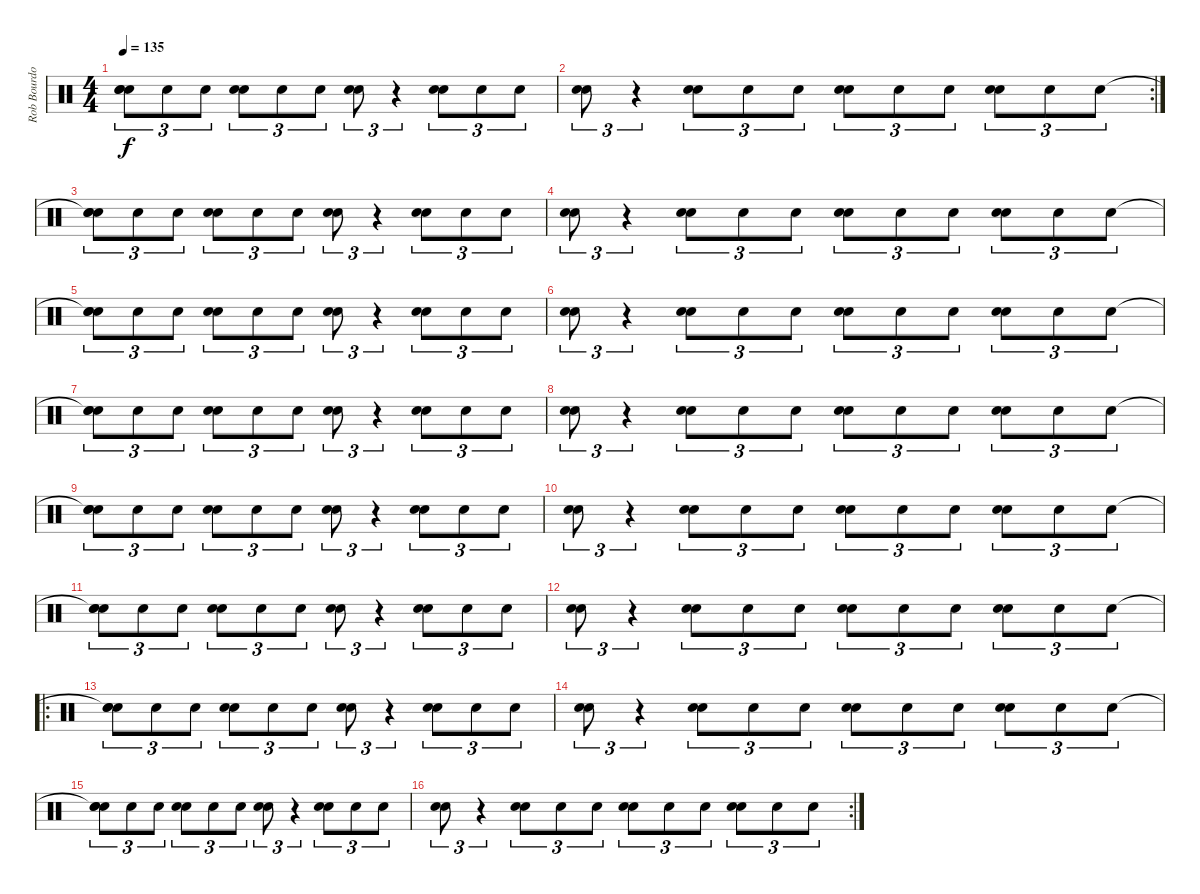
\track ("Rob Bourdon [Drums]" "Rob Bourdo") {instrument percussion bank 5}
\staff {score}
\articulation defaults
\ts (4 4)
\tempo 135
\clef neutral
\ks c
("Snare (hit)"{t} "Hand Clap (hit)" "Electric Snare (hit)").8{tu (3 2) dy f} "Electric Snare (hit)".8{tu (3 2)} "Electric Snare (hit)".8{tu (3 2)} ("Hand Clap (hit)" "Electric Snare (hit)").8{tu (3 2)} "Electric Snare (hit)".8{tu (3 2)} "Electric Snare (hit)".8{tu (3 2)} ("Hand Clap (hit)" "Electric Snare (hit)").8{tu (3 2)} r.4{tu (3 2)} ("Hand Clap (hit)" "Electric Snare (hit)").8{tu (3 2)} "Electric Snare (hit)".8{tu (3 2)} "Electric Snare (hit)".8{tu (3 2)} |
\rc 2
("Hand Clap (hit)" "Electric Snare (hit)").8{tu (3 2)} r.4{tu (3 2)} ("Hand Clap (hit)" "Electric Snare (hit)").8{tu (3 2)} "Electric Snare (hit)".8{tu (3 2)} "Electric Snare (hit)".8{tu (3 2)} ("Hand Clap (hit)" "Electric Snare (hit)").8{tu (3 2)} "Electric Snare (hit)".8{tu (3 2)} "Electric Snare (hit)".8{tu (3 2)} ("Hand Clap (hit)" "Electric Snare (hit)").8{tu (3 2)} "Electric Snare (hit)".8{tu (3 2)} "Electric Snare (hit)".8{tu (3 2)} |
("Snare (hit)"{t} "Hand Clap (hit)" "Electric Snare (hit)").8{tu (3 2) volume 14} "Electric Snare (hit)".8{tu (3 2)} "Electric Snare (hit)".8{tu (3 2)} ("Hand Clap (hit)" "Electric Snare (hit)").8{tu (3 2)} "Electric Snare (hit)".8{tu (3 2)} "Electric Snare (hit)".8{tu (3 2)} ("Hand Clap (hit)" "Electric Snare (hit)").8{tu (3 2)} r.4{tu (3 2)} ("Hand Clap (hit)" "Electric Snare (hit)").8{tu (3 2)} "Electric Snare (hit)".8{tu (3 2)} "Electric Snare (hit)".8{tu (3 2)} |
("Hand Clap (hit)" "Electric Snare (hit)").8{tu (3 2)} r.4{tu (3 2)} ("Hand Clap (hit)" "Electric Snare (hit)").8{tu (3 2)} "Electric Snare (hit)".8{tu (3 2)} "Electric Snare (hit)".8{tu (3 2)} ("Hand Clap (hit)" "Electric Snare (hit)").8{tu (3 2)} "Electric Snare (hit)".8{tu (3 2)} "Electric Snare (hit)".8{tu (3 2)} ("Hand Clap (hit)" "Electric Snare (hit)").8{tu (3 2)} "Electric Snare (hit)".8{tu (3 2)} "Electric Snare (hit)".8{tu (3 2)} |
("Snare (hit)"{t} "Hand Clap (hit)" "Electric Snare (hit)").8{tu (3 2)} "Electric Snare (hit)".8{tu (3 2)} "Electric Snare (hit)".8{tu (3 2)} ("Hand Clap (hit)" "Electric Snare (hit)").8{tu (3 2)} "Electric Snare (hit)".8{tu (3 2)} "Electric Snare (hit)".8{tu (3 2)} ("Hand Clap (hit)" "Electric Snare (hit)").8{tu (3 2)} r.4{tu (3 2)} ("Hand Clap (hit)" "Electric Snare (hit)").8{tu (3 2)} "Electric Snare (hit)".8{tu (3 2)} "Electric Snare (hit)".8{tu (3 2)} |
("Hand Clap (hit)" "Electric Snare (hit)").8{tu (3 2)} r.4{tu (3 2)} ("Hand Clap (hit)" "Electric Snare (hit)").8{tu (3 2)} "Electric Snare (hit)".8{tu (3 2)} "Electric Snare (hit)".8{tu (3 2)} ("Hand Clap (hit)" "Electric Snare (hit)").8{tu (3 2)} "Electric Snare (hit)".8{tu (3 2)} "Electric Snare (hit)".8{tu (3 2)} ("Hand Clap (hit)" "Electric Snare (hit)").8{tu (3 2)} "Electric Snare (hit)".8{tu (3 2)} "Electric Snare (hit)".8{tu (3 2)} |
("Snare (hit)"{t} "Hand Clap (hit)" "Electric Snare (hit)").8{tu (3 2)} "Electric Snare (hit)".8{tu (3 2)} "Electric Snare (hit)".8{tu (3 2)} ("Hand Clap (hit)" "Electric Snare (hit)").8{tu (3 2)} "Electric Snare (hit)".8{tu (3 2)} "Electric Snare (hit)".8{tu (3 2)} ("Hand Clap (hit)" "Electric Snare (hit)").8{tu (3 2)} r.4{tu (3 2)} ("Hand Clap (hit)" "Electric Snare (hit)").8{tu (3 2)} "Electric Snare (hit)".8{tu (3 2)} "Electric Snare (hit)".8{tu (3 2)} |
("Hand Clap (hit)" "Electric Snare (hit)").8{tu (3 2)} r.4{tu (3 2)} ("Hand Clap (hit)" "Electric Snare (hit)").8{tu (3 2)} "Electric Snare (hit)".8{tu (3 2)} "Electric Snare (hit)".8{tu (3 2)} ("Hand Clap (hit)" "Electric Snare (hit)").8{tu (3 2)} "Electric Snare (hit)".8{tu (3 2)} "Electric Snare (hit)".8{tu (3 2)} ("Hand Clap (hit)" "Electric Snare (hit)").8{tu (3 2)} "Electric Snare (hit)".8{tu (3 2)} "Electric Snare (hit)".8{tu (3 2)} |
("Snare (hit)"{t} "Hand Clap (hit)" "Electric Snare (hit)").8{tu (3 2)} "Electric Snare (hit)".8{tu (3 2)} "Electric Snare (hit)".8{tu (3 2)} ("Hand Clap (hit)" "Electric Snare (hit)").8{tu (3 2)} "Electric Snare (hit)".8{tu (3 2)} "Electric Snare (hit)".8{tu (3 2)} ("Hand Clap (hit)" "Electric Snare (hit)").8{tu (3 2)} r.4{tu (3 2)} ("Hand Clap (hit)" "Electric Snare (hit)").8{tu (3 2)} "Electric Snare (hit)".8{tu (3 2)} "Electric Snare (hit)".8{tu (3 2)} |
("Hand Clap (hit)" "Electric Snare (hit)").8{tu (3 2)} r.4{tu (3 2)} ("Hand Clap (hit)" "Electric Snare (hit)").8{tu (3 2)} "Electric Snare (hit)".8{tu (3 2)} "Electric Snare (hit)".8{tu (3 2)} ("Hand Clap (hit)" "Electric Snare (hit)").8{tu (3 2)} "Electric Snare (hit)".8{tu (3 2)} "Electric Snare (hit)".8{tu (3 2)} ("Hand Clap (hit)" "Electric Snare (hit)").8{tu (3 2)} "Electric Snare (hit)".8{tu (3 2)} "Electric Snare (hit)".8{tu (3 2)} |
("Snare (hit)"{t} "Hand Clap (hit)" "Electric Snare (hit)").8{tu (3 2)} "Electric Snare (hit)".8{tu (3 2)} "Electric Snare (hit)".8{tu (3 2)} ("Hand Clap (hit)" "Electric Snare (hit)").8{tu (3 2)} "Electric Snare (hit)".8{tu (3 2)} "Electric Snare (hit)".8{tu (3 2)} ("Hand Clap (hit)" "Electric Snare (hit)").8{tu (3 2)} r.4{tu (3 2)} ("Hand Clap (hit)" "Electric Snare (hit)").8{tu (3 2)} "Electric Snare (hit)".8{tu (3 2)} "Electric Snare (hit)".8{tu (3 2)} |
("Hand Clap (hit)" "Electric Snare (hit)").8{tu (3 2)} r.4{tu (3 2)} ("Hand Clap (hit)" "Electric Snare (hit)").8{tu (3 2)} "Electric Snare (hit)".8{tu (3 2)} "Electric Snare (hit)".8{tu (3 2)} ("Hand Clap (hit)" "Electric Snare (hit)").8{tu (3 2)} "Electric Snare (hit)".8{tu (3 2)} "Electric Snare (hit)".8{tu (3 2)} ("Hand Clap (hit)" "Electric Snare (hit)").8{tu (3 2)} "Electric Snare (hit)".8{tu (3 2)} "Electric Snare (hit)".8{tu (3 2)} |
\ro
("Snare (hit)"{t} "Hand Clap (hit)" "Electric Snare (hit)").8{tu (3 2)} "Electric Snare (hit)".8{tu (3 2)} "Electric Snare (hit)".8{tu (3 2)} ("Hand Clap (hit)" "Electric Snare (hit)").8{tu (3 2)} "Electric Snare (hit)".8{tu (3 2)} "Electric Snare (hit)".8{tu (3 2)} ("Hand Clap (hit)" "Electric Snare (hit)").8{tu (3 2)} r.4{tu (3 2)} ("Hand Clap (hit)" "Electric Snare (hit)").8{tu (3 2)} "Electric Snare (hit)".8{tu (3 2)} "Electric Snare (hit)".8{tu (3 2)} |
("Hand Clap (hit)" "Electric Snare (hit)").8{tu (3 2)} r.4{tu (3 2)} ("Hand Clap (hit)" "Electric Snare (hit)").8{tu (3 2)} "Electric Snare (hit)".8{tu (3 2)} "Electric Snare (hit)".8{tu (3 2)} ("Hand Clap (hit)" "Electric Snare (hit)").8{tu (3 2)} "Electric Snare (hit)".8{tu (3 2)} "Electric Snare (hit)".8{tu (3 2)} ("Hand Clap (hit)" "Electric Snare (hit)").8{tu (3 2)} "Electric Snare (hit)".8{tu (3 2)} "Electric Snare (hit)".8{tu (3 2)} |
("Snare (hit)"{t} "Hand Clap (hit)" "Electric Snare (hit)").8{tu (3 2)} "Electric Snare (hit)".8{tu (3 2)} "Electric Snare (hit)".8{tu (3 2)} ("Hand Clap (hit)" "Electric Snare (hit)").8{tu (3 2)} "Electric Snare (hit)".8{tu (3 2)} "Electric Snare (hit)".8{tu (3 2)} ("Hand Clap (hit)" "Electric Snare (hit)").8{tu (3 2)} r.4{tu (3 2)} ("Hand Clap (hit)" "Electric Snare (hit)").8{tu (3 2)} "Electric Snare (hit)".8{tu (3 2)} "Electric Snare (hit)".8{tu (3 2)} |
\rc 2
("Hand Clap (hit)" "Electric Snare (hit)").8{tu (3 2)} r.4{tu (3 2)} ("Hand Clap (hit)" "Electric Snare (hit)").8{tu (3 2)} "Electric Snare (hit)".8{tu (3 2)} "Electric Snare (hit)".8{tu (3 2)} ("Hand Clap (hit)" "Electric Snare (hit)").8{tu (3 2)} "Electric Snare (hit)".8{tu (3 2)} "Electric Snare (hit)".8{tu (3 2)} ("Hand Clap (hit)" "Electric Snare (hit)").8{tu (3 2)} "Electric Snare (hit)".8{tu (3 2)} "Electric Snare (hit)".8{tu (3 2)}
